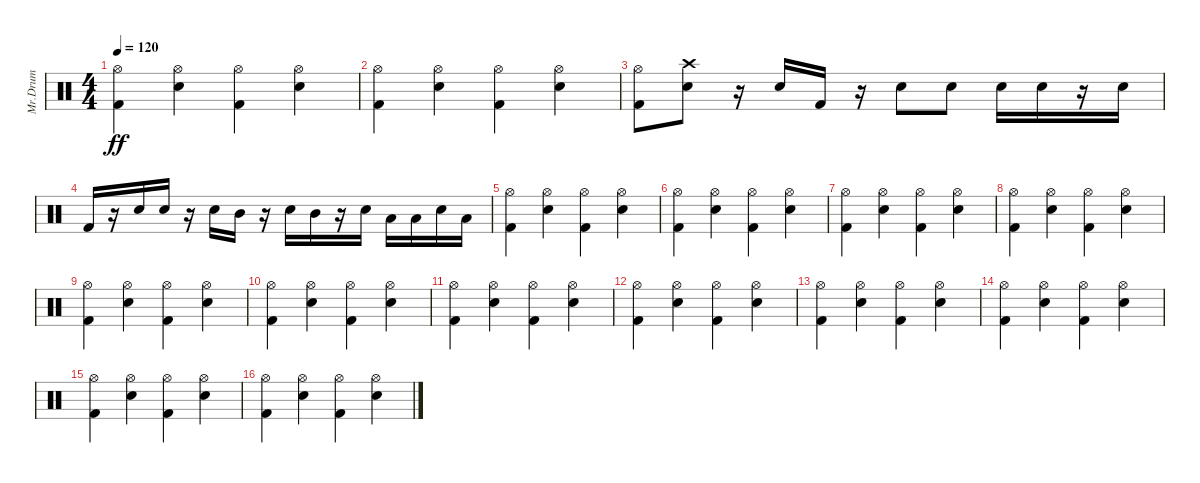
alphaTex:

\track ("Mr.Drum" "Mr.Drum") {instrument percussion}
\staff {score}
\articulation defaults
\ts (4 4)
\tempo 120
\clef neutral
\ks c
("Hi-Hat (open)" "Kick (hit) 2").4{dy ff} ("Hi-Hat (open)" "Electric Snare (hit)").4 ("Hi-Hat (open)" "Kick (hit) 2").4 ("Hi-Hat (open)" "Electric Snare (hit)").4 |
("Hi-Hat (open)" "Kick (hit) 2").4 ("Hi-Hat (open)" "Electric Snare (hit)").4 ("Hi-Hat (open)" "Kick (hit) 2").4 ("Hi-Hat (open)" "Electric Snare (hit)").4 |
("Hi-Hat (open)" "Kick (hit) 2").8 ("Crash high (hit)" "Electric Snare (hit)").8 r.16 "Electric Snare (hit)".16 "Kick (hit) 2".16 r.16 "Electric Snare (hit)".8 "Electric Snare (hit)".8 "Electric Snare (hit)".16 "Electric Snare (hit)".16 r.16 "Electric Snare (hit)".16 |
"Kick (hit) 2".16 r.16 "Electric Snare (hit)".16 "Electric Snare (hit)".16 r.16 "Electric Snare (hit)".16 "Mid Tom (hit)".16 r.16 "Electric Snare (hit)".16 "Mid Tom (hit)".16 r.16 "Electric Snare (hit)".16 "Low Tom (hit)".16 "Low Tom (hit)".16 "Electric Snare (hit)".16 "Low Tom (hit)".16 |
("Hi-Hat (open)" "Kick (hit) 2").4 ("Hi-Hat (open)" "Electric Snare (hit)").4 ("Hi-Hat (open)" "Kick (hit) 2").4 ("Hi-Hat (open)" "Electric Snare (hit)").4 |
("Hi-Hat (open)" "Kick (hit) 2").4 ("Hi-Hat (open)" "Electric Snare (hit)").4 ("Hi-Hat (open)" "Kick (hit) 2").4 ("Hi-Hat (open)" "Electric Snare (hit)").4 |
("Hi-Hat (open)" "Kick (hit) 2").4 ("Hi-Hat (open)" "Electric Snare (hit)").4 ("Hi-Hat (open)" "Kick (hit) 2").4 ("Hi-Hat (open)" "Electric Snare (hit)").4 |
("Hi-Hat (open)" "Kick (hit) 2").4 ("Hi-Hat (open)" "Electric Snare (hit)").4 ("Hi-Hat (open)" "Kick (hit) 2").4 ("Hi-Hat (open)" "Electric Snare (hit)").4 |
("Hi-Hat (open)" "Kick (hit) 2").4 ("Hi-Hat (open)" "Electric Snare (hit)").4 ("Hi-Hat (open)" "Kick (hit) 2").4 ("Hi-Hat (open)" "Electric Snare (hit)").4 |
("Hi-Hat (open)" "Kick (hit) 2").4 ("Hi-Hat (open)" "Electric Snare (hit)").4 ("Hi-Hat (open)" "Kick (hit) 2").4 ("Hi-Hat (open)" "Electric Snare (hit)").4 |
("Hi-Hat (open)" "Kick (hit) 2").4 ("Hi-Hat (open)" "Electric Snare (hit)").4 ("Hi-Hat (open)" "Kick (hit) 2").4 ("Hi-Hat (open)" "Electric Snare (hit)").4 |
("Hi-Hat (open)" "Kick (hit) 2").4 ("Hi-Hat (open)" "Electric Snare (hit)").4 ("Hi-Hat (open)" "Kick (hit) 2").4 ("Hi-Hat (open)" "Electric Snare (hit)").4 |
("Hi-Hat (open)" "Kick (hit) 2").4 ("Hi-Hat (open)" "Electric Snare (hit)").4 ("Hi-Hat (open)" "Kick (hit) 2").4 ("Hi-Hat (open)" "Electric Snare (hit)").4 |
("Hi-Hat (open)" "Kick (hit) 2").4 ("Hi-Hat (open)" "Electric Snare (hit)").4 ("Hi-Hat (open)" "Kick (hit) 2").4 ("Hi-Hat (open)" "Electric Snare (hit)").4 |
("Hi-Hat (open)" "Kick (hit) 2").4 ("Hi-Hat (open)" "Electric Snare (hit)").4 ("Hi-Hat (open)" "Kick (hit) 2").4 ("Hi-Hat (open)" "Electric Snare (hit)").4 |
("Hi-Hat (open)" "Kick (hit) 2").4 ("Hi-Hat (open)" "Electric Snare (hit)").4 ("Hi-Hat (open)" "Kick (hit) 2").4 ("Hi-Hat (open)" "Electric Snare (hit)").4
